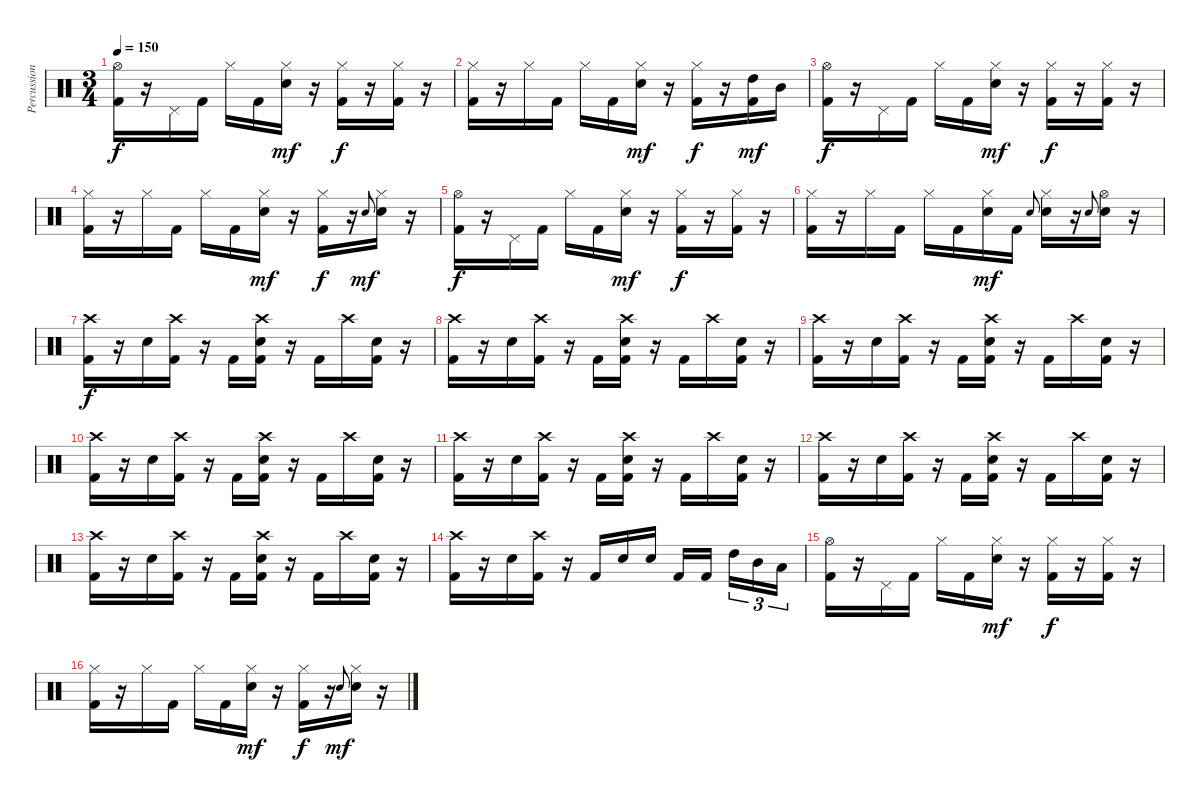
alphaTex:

\track ("Percussion" "Percussion") {instrument percussion}
\staff {score}
\articulation defaults
\ts (3 4)
\tempo 150
\clef neutral
\ks c
("Hi-Hat (open)" "Kick (hit) 2").16{dy f} r.16 "Pedal Hi-Hat (hit)".16 "Kick (hit) 2".16 "Hi-Hat (closed)".16 "Kick (hit) 2".16 ("Hi-Hat (closed)" "Electric Snare (hit)").16{dy mf} r.16 ("Hi-Hat (closed)" "Kick (hit) 2").16{dy f} r.16 ("Hi-Hat (closed)" "Kick (hit) 2").16 r.16 |
("Hi-Hat (closed)" "Kick (hit) 2").16 r.16 "Hi-Hat (closed)".16 "Kick (hit) 2".16 "Hi-Hat (closed)".16 "Kick (hit) 2".16 ("Hi-Hat (closed)" "Electric Snare (hit)").16{dy mf} r.16 ("Hi-Hat (closed)" "Kick (hit) 2").16{dy f} r.16 ("High Tom (hit)" "Kick (hit) 2").16{dy mf} "Mid Tom (hit)".16 |
("Hi-Hat (open)" "Kick (hit) 2").16{dy f} r.16 "Pedal Hi-Hat (hit)".16 "Kick (hit) 2".16 "Hi-Hat (closed)".16 "Kick (hit) 2".16 ("Hi-Hat (closed)" "Electric Snare (hit)").16{dy mf} r.16 ("Hi-Hat (closed)" "Kick (hit) 2").16{dy f} r.16 ("Hi-Hat (closed)" "Kick (hit) 2").16 r.16 |
("Hi-Hat (closed)" "Kick (hit) 2").16 r.16 "Hi-Hat (closed)".16 "Kick (hit) 2".16 "Hi-Hat (closed)".16 "Kick (hit) 2".16 ("Hi-Hat (closed)" "Electric Snare (hit)").16{dy mf} r.16 ("Hi-Hat (closed)" "Kick (hit) 2").16{dy f} r.16 "Electric Snare (hit)"{h}.8{gr onbeat dy mf} ("Hi-Hat (closed)" "Electric Snare (hit)").16 r.16 |
("Hi-Hat (open)" "Kick (hit) 2").16{dy f} r.16 "Pedal Hi-Hat (hit)".16 "Kick (hit) 2".16 "Hi-Hat (closed)".16 "Kick (hit) 2".16 ("Hi-Hat (closed)" "Electric Snare (hit)").16{dy mf} r.16 ("Hi-Hat (closed)" "Kick (hit) 2").16{dy f} r.16 ("Hi-Hat (closed)" "Kick (hit) 2").16 r.16 |
("Hi-Hat (closed)" "Kick (hit) 2").16 r.16 "Hi-Hat (closed)".16 "Kick (hit) 2".16 "Hi-Hat (closed)".16 "Kick (hit) 2".16 ("Hi-Hat (closed)" "Electric Snare (hit)").16{dy mf} "Kick (hit) 2".16 "Electric Snare (hit)"{h}.8{gr onbeat} ("Hi-Hat (closed)" "Electric Snare (hit)").16 r.16 "Electric Snare (hit)"{h}.8{gr onbeat} ("Hi-Hat (open)" "Electric Snare (hit)").16 r.16 |
("Crash high (hit)" "Kick (hit) 2").16{dy f} r.16 "Electric Snare (hit)".16 ("Crash high (hit)" "Kick (hit) 2").16 r.16 "Kick (hit) 2".16 ("Crash high (hit)" "Electric Snare (hit)" "Kick (hit) 2").16 r.16 "Kick (hit) 2".16 "Crash high (hit)".16 ("Electric Snare (hit)" "Kick (hit) 2").16 r.16 |
("Crash high (hit)" "Kick (hit) 2").16 r.16 "Electric Snare (hit)".16 ("Crash high (hit)" "Kick (hit) 2").16 r.16 "Kick (hit) 2".16 ("Crash high (hit)" "Electric Snare (hit)" "Kick (hit) 2").16 r.16 "Kick (hit) 2".16 "Crash high (hit)".16 ("Electric Snare (hit)" "Kick (hit) 2").16 r.16 |
("Crash high (hit)" "Kick (hit) 2").16 r.16 "Electric Snare (hit)".16 ("Crash high (hit)" "Kick (hit) 2").16 r.16 "Kick (hit) 2".16 ("Crash high (hit)" "Electric Snare (hit)" "Kick (hit) 2").16 r.16 "Kick (hit) 2".16 "Crash high (hit)".16 ("Electric Snare (hit)" "Kick (hit) 2").16 r.16 |
("Crash high (hit)" "Kick (hit) 2").16 r.16 "Electric Snare (hit)".16 ("Crash high (hit)" "Kick (hit) 2").16 r.16 "Kick (hit) 2".16 ("Crash high (hit)" "Electric Snare (hit)" "Kick (hit) 2").16 r.16 "Kick (hit) 2".16 "Crash high (hit)".16 ("Electric Snare (hit)" "Kick (hit) 2").16 r.16 |
("Crash high (hit)" "Kick (hit) 2").16 r.16 "Electric Snare (hit)".16 ("Crash high (hit)" "Kick (hit) 2").16 r.16 "Kick (hit) 2".16 ("Crash high (hit)" "Electric Snare (hit)" "Kick (hit) 2").16 r.16 "Kick (hit) 2".16 "Crash high (hit)".16 ("Electric Snare (hit)" "Kick (hit) 2").16 r.16 |
("Crash high (hit)" "Kick (hit) 2").16 r.16 "Electric Snare (hit)".16 ("Crash high (hit)" "Kick (hit) 2").16 r.16 "Kick (hit) 2".16 ("Crash high (hit)" "Electric Snare (hit)" "Kick (hit) 2").16 r.16 "Kick (hit) 2".16 "Crash high (hit)".16 ("Electric Snare (hit)" "Kick (hit) 2").16 r.16 |
("Crash high (hit)" "Kick (hit) 2").16 r.16 "Electric Snare (hit)".16 ("Crash high (hit)" "Kick (hit) 2").16 r.16 "Kick (hit) 2".16 ("Crash high (hit)" "Electric Snare (hit)" "Kick (hit) 2").16 r.16 "Kick (hit) 2".16 "Crash high (hit)".16 ("Electric Snare (hit)" "Kick (hit) 2").16 r.16 |
("Crash high (hit)" "Kick (hit) 2").16 r.16 "Electric Snare (hit)".16 ("Crash high (hit)" "Kick (hit) 2").16 r.16 "Kick (hit) 2".16 "Electric Snare (hit)".16 "Electric Snare (hit)".16 "Kick (hit) 2".16 "Kick (hit) 2".16{beam splitsecondary} "High Tom (hit)".16{tu (3 2)} "Mid Tom (hit)".16{tu (3 2)} "Low Tom (hit)".16{tu (3 2)} |
("Hi-Hat (open)" "Kick (hit) 2").16 r.16 "Pedal Hi-Hat (hit)".16 "Kick (hit) 2".16 "Hi-Hat (closed)".16 "Kick (hit) 2".16 ("Hi-Hat (closed)" "Electric Snare (hit)").16{dy mf} r.16 ("Hi-Hat (closed)" "Kick (hit) 2").16{dy f} r.16 ("Hi-Hat (closed)" "Kick (hit) 2").16 r.16 |
("Hi-Hat (closed)" "Kick (hit) 2").16 r.16 "Hi-Hat (closed)".16 "Kick (hit) 2".16 "Hi-Hat (closed)".16 "Kick (hit) 2".16 ("Hi-Hat (closed)" "Electric Snare (hit)").16{dy mf} r.16 ("Hi-Hat (closed)" "Kick (hit) 2").16{dy f} r.16 "Electric Snare (hit)"{h}.8{gr onbeat dy mf} ("Hi-Hat (closed)" "Electric Snare (hit)").16 r.16
